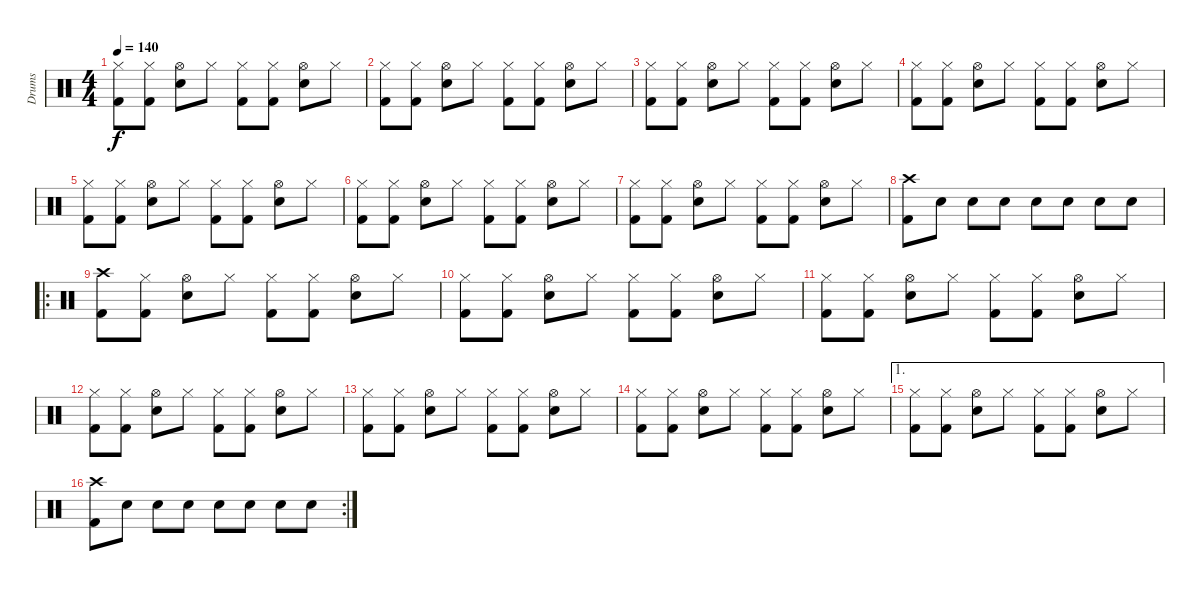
\track ("Drums" "Drums") {instrument percussion}
\staff {score}
\articulation defaults
\ts (4 4)
\tempo 140
\clef neutral
\ks c
("Hi-Hat (closed)" "Kick (hit) 2").8{dy f} ("Hi-Hat (closed)" "Kick (hit) 2").8 ("Hi-Hat (open)" "Electric Snare (hit)").8 "Hi-Hat (closed)".8 ("Hi-Hat (closed)" "Kick (hit) 2").8 ("Hi-Hat (closed)" "Kick (hit) 2").8 ("Hi-Hat (open)" "Electric Snare (hit)").8 "Hi-Hat (closed)".8 |
("Hi-Hat (closed)" "Kick (hit) 2").8 ("Hi-Hat (closed)" "Kick (hit) 2").8 ("Hi-Hat (open)" "Electric Snare (hit)").8 "Hi-Hat (closed)".8 ("Hi-Hat (closed)" "Kick (hit) 2").8 ("Hi-Hat (closed)" "Kick (hit) 2").8 ("Hi-Hat (open)" "Electric Snare (hit)").8 "Hi-Hat (closed)".8 |
("Hi-Hat (closed)" "Kick (hit) 2").8 ("Hi-Hat (closed)" "Kick (hit) 2").8 ("Hi-Hat (open)" "Electric Snare (hit)").8 "Hi-Hat (closed)".8 ("Hi-Hat (closed)" "Kick (hit) 2").8 ("Hi-Hat (closed)" "Kick (hit) 2").8 ("Hi-Hat (open)" "Electric Snare (hit)").8 "Hi-Hat (closed)".8 |
("Hi-Hat (closed)" "Kick (hit) 2").8 ("Hi-Hat (closed)" "Kick (hit) 2").8 ("Hi-Hat (open)" "Electric Snare (hit)").8 "Hi-Hat (closed)".8 ("Hi-Hat (closed)" "Kick (hit) 2").8 ("Hi-Hat (closed)" "Kick (hit) 2").8 ("Hi-Hat (open)" "Electric Snare (hit)").8 "Hi-Hat (closed)".8 |
("Hi-Hat (closed)" "Kick (hit) 2").8 ("Hi-Hat (closed)" "Kick (hit) 2").8 ("Hi-Hat (open)" "Electric Snare (hit)").8 "Hi-Hat (closed)".8 ("Hi-Hat (closed)" "Kick (hit) 2").8 ("Hi-Hat (closed)" "Kick (hit) 2").8 ("Hi-Hat (open)" "Electric Snare (hit)").8 "Hi-Hat (closed)".8 |
("Hi-Hat (closed)" "Kick (hit) 2").8 ("Hi-Hat (closed)" "Kick (hit) 2").8 ("Hi-Hat (open)" "Electric Snare (hit)").8 "Hi-Hat (closed)".8 ("Hi-Hat (closed)" "Kick (hit) 2").8 ("Hi-Hat (closed)" "Kick (hit) 2").8 ("Hi-Hat (open)" "Electric Snare (hit)").8 "Hi-Hat (closed)".8 |
("Hi-Hat (closed)" "Kick (hit) 2").8 ("Hi-Hat (closed)" "Kick (hit) 2").8 ("Hi-Hat (open)" "Electric Snare (hit)").8 "Hi-Hat (closed)".8 ("Hi-Hat (closed)" "Kick (hit) 2").8 ("Hi-Hat (closed)" "Kick (hit) 2").8 ("Hi-Hat (open)" "Electric Snare (hit)").8 "Hi-Hat (closed)".8 |
("Crash high (hit)" "Kick (hit) 2").8 "Electric Snare (hit)".8 "Electric Snare (hit)".8 "Electric Snare (hit)".8 "Electric Snare (hit)".8 "Electric Snare (hit)".8 "Electric Snare (hit)".8 "Electric Snare (hit)".8 |
\ro
("Crash high (hit)" "Kick (hit) 2").8 ("Hi-Hat (closed)" "Kick (hit) 2").8 ("Hi-Hat (open)" "Electric Snare (hit)").8 "Hi-Hat (closed)".8 ("Hi-Hat (closed)" "Kick (hit) 2").8 ("Hi-Hat (closed)" "Kick (hit) 2").8 ("Hi-Hat (open)" "Electric Snare (hit)").8 "Hi-Hat (closed)".8 |
("Hi-Hat (closed)" "Kick (hit) 2").8 ("Hi-Hat (closed)" "Kick (hit) 2").8 ("Hi-Hat (open)" "Electric Snare (hit)").8 "Hi-Hat (closed)".8 ("Hi-Hat (closed)" "Kick (hit) 2").8 ("Hi-Hat (closed)" "Kick (hit) 2").8 ("Hi-Hat (open)" "Electric Snare (hit)").8 "Hi-Hat (closed)".8 |
("Hi-Hat (closed)" "Kick (hit) 2").8 ("Hi-Hat (closed)" "Kick (hit) 2").8 ("Hi-Hat (open)" "Electric Snare (hit)").8 "Hi-Hat (closed)".8 ("Hi-Hat (closed)" "Kick (hit) 2").8 ("Hi-Hat (closed)" "Kick (hit) 2").8 ("Hi-Hat (open)" "Electric Snare (hit)").8 "Hi-Hat (closed)".8 |
("Hi-Hat (closed)" "Kick (hit) 2").8 ("Hi-Hat (closed)" "Kick (hit) 2").8 ("Hi-Hat (open)" "Electric Snare (hit)").8 "Hi-Hat (closed)".8 ("Hi-Hat (closed)" "Kick (hit) 2").8 ("Hi-Hat (closed)" "Kick (hit) 2").8 ("Hi-Hat (open)" "Electric Snare (hit)").8 "Hi-Hat (closed)".8 |
("Hi-Hat (closed)" "Kick (hit) 2").8 ("Hi-Hat (closed)" "Kick (hit) 2").8 ("Hi-Hat (open)" "Electric Snare (hit)").8 "Hi-Hat (closed)".8 ("Hi-Hat (closed)" "Kick (hit) 2").8 ("Hi-Hat (closed)" "Kick (hit) 2").8 ("Hi-Hat (open)" "Electric Snare (hit)").8 "Hi-Hat (closed)".8 |
("Hi-Hat (closed)" "Kick (hit) 2").8 ("Hi-Hat (closed)" "Kick (hit) 2").8 ("Hi-Hat (open)" "Electric Snare (hit)").8 "Hi-Hat (closed)".8 ("Hi-Hat (closed)" "Kick (hit) 2").8 ("Hi-Hat (closed)" "Kick (hit) 2").8 ("Hi-Hat (open)" "Electric Snare (hit)").8 "Hi-Hat (closed)".8 |
\ae 1
("Hi-Hat (closed)" "Kick (hit) 2").8 ("Hi-Hat (closed)" "Kick (hit) 2").8 ("Hi-Hat (open)" "Electric Snare (hit)").8 "Hi-Hat (closed)".8 ("Hi-Hat (closed)" "Kick (hit) 2").8 ("Hi-Hat (closed)" "Kick (hit) 2").8 ("Hi-Hat (open)" "Electric Snare (hit)").8 "Hi-Hat (closed)".8 |
\rc 2
("Crash high (hit)" "Kick (hit) 2").8 "Electric Snare (hit)".8 "Electric Snare (hit)".8 "Electric Snare (hit)".8 "Electric Snare (hit)".8 "Electric Snare (hit)".8 "Electric Snare (hit)".8 "Electric Snare (hit)".8
